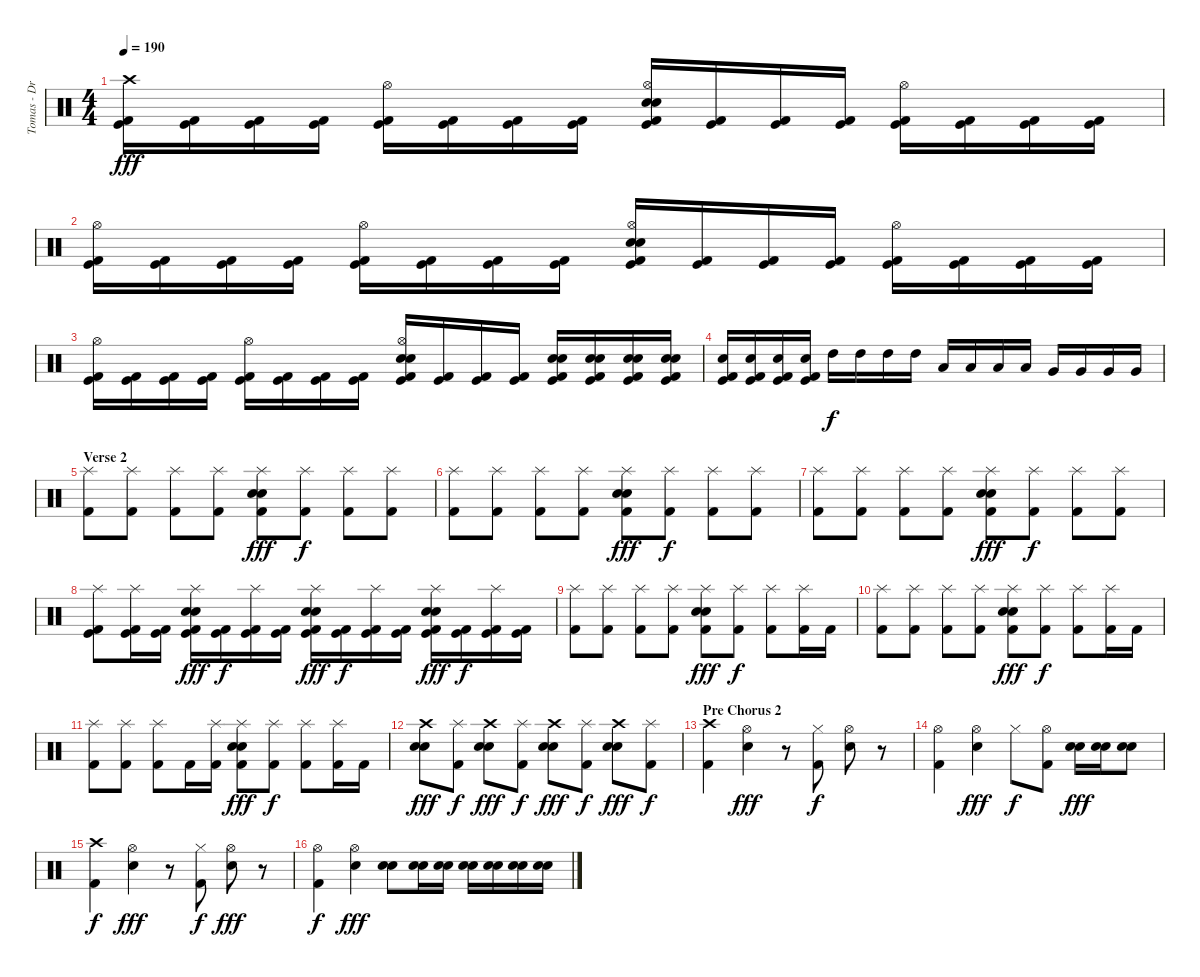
\track ("Tomas - Drums" "Tomas - Dr") {instrument percussion}
\staff {score}
\articulation defaults
\ts (4 4)
\tempo 190
\clef neutral
\ks c
("Crash high (hit)" "Kick (hit)" "Kick (hit) 2").16{dy fff} ("Kick (hit)" "Kick (hit) 2").16 ("Kick (hit)" "Kick (hit) 2").16 ("Kick (hit)" "Kick (hit) 2").16 ("Hi-Hat (open)" "Kick (hit)" "Kick (hit) 2").16 ("Kick (hit)" "Kick (hit) 2").16 ("Kick (hit)" "Kick (hit) 2").16 ("Kick (hit)" "Kick (hit) 2").16 ("Hi-Hat (open)" "Electric Snare (hit)" "Electric Snare (hit)" "Kick (hit)" "Kick (hit) 2").16 ("Kick (hit)" "Kick (hit) 2").16 ("Kick (hit)" "Kick (hit) 2").16 ("Kick (hit)" "Kick (hit) 2").16 ("Hi-Hat (open)" "Kick (hit)" "Kick (hit) 2").16 ("Kick (hit)" "Kick (hit) 2").16 ("Kick (hit)" "Kick (hit) 2").16 ("Kick (hit)" "Kick (hit) 2").16 |
("Hi-Hat (open)" "Kick (hit)" "Kick (hit) 2").16 ("Kick (hit)" "Kick (hit) 2").16 ("Kick (hit)" "Kick (hit) 2").16 ("Kick (hit)" "Kick (hit) 2").16 ("Hi-Hat (open)" "Kick (hit)" "Kick (hit) 2").16 ("Kick (hit)" "Kick (hit) 2").16 ("Kick (hit)" "Kick (hit) 2").16 ("Kick (hit)" "Kick (hit) 2").16 ("Hi-Hat (open)" "Electric Snare (hit)" "Electric Snare (hit)" "Kick (hit)" "Kick (hit) 2").16 ("Kick (hit)" "Kick (hit) 2").16 ("Kick (hit)" "Kick (hit) 2").16 ("Kick (hit)" "Kick (hit) 2").16 ("Hi-Hat (open)" "Kick (hit)" "Kick (hit) 2").16 ("Kick (hit)" "Kick (hit) 2").16 ("Kick (hit)" "Kick (hit) 2").16 ("Kick (hit)" "Kick (hit) 2").16 |
("Hi-Hat (open)" "Kick (hit)" "Kick (hit) 2").16 ("Kick (hit)" "Kick (hit) 2").16 ("Kick (hit)" "Kick (hit) 2").16 ("Kick (hit)" "Kick (hit) 2").16 ("Hi-Hat (open)" "Kick (hit)" "Kick (hit) 2").16 ("Kick (hit)" "Kick (hit) 2").16 ("Kick (hit)" "Kick (hit) 2").16 ("Kick (hit)" "Kick (hit) 2").16 ("Hi-Hat (open)" "Electric Snare (hit)" "Electric Snare (hit)" "Kick (hit)" "Kick (hit) 2").16 ("Kick (hit)" "Kick (hit) 2").16 ("Kick (hit)" "Kick (hit) 2").16 ("Kick (hit)" "Kick (hit) 2").16 ("Electric Snare (hit)" "Electric Snare (hit)" "Kick (hit)" "Kick (hit) 2").16 ("Electric Snare (hit)" "Electric Snare (hit)" "Kick (hit)" "Kick (hit) 2").16 ("Electric Snare (hit)" "Electric Snare (hit)" "Kick (hit)" "Kick (hit) 2").16 ("Electric Snare (hit)" "Electric Snare (hit)" "Kick (hit)" "Kick (hit) 2").16 |
("Electric Snare (hit)" "Kick (hit) 2" "Kick (hit)").16 ("Electric Snare (hit)" "Kick (hit) 2" "Kick (hit)").16 ("Electric Snare (hit)" "Kick (hit) 2" "Kick (hit)").16 ("Electric Snare (hit)" "Kick (hit) 2" "Kick (hit)").16 "High Tom (hit)".16{dy f} "High Tom (hit)".16 "High Tom (hit)".16 "High Tom (hit)".16 "Low Tom (hit)".16 "Low Tom (hit)".16 "Low Tom (hit)".16 "Low Tom (hit)".16 "Very Low Tom (hit)".16 "Very Low Tom (hit)".16 "Very Low Tom (hit)".16 "Very Low Tom (hit)".16 |
\section ("" "Verse 2")
("Splash (hit)" "Kick (hit) 2").8 ("Splash (hit)" "Kick (hit) 2").8 ("Splash (hit)" "Kick (hit) 2").8 ("Splash (hit)" "Kick (hit) 2").8 ("Splash (hit)" "Electric Snare (hit)" "Electric Snare (hit)" "Kick (hit) 2").8{dy fff} ("Splash (hit)" "Kick (hit) 2").8{dy f} ("Splash (hit)" "Kick (hit) 2").8 ("Splash (hit)" "Kick (hit) 2").8 |
("Splash (hit)" "Kick (hit) 2").8 ("Splash (hit)" "Kick (hit) 2").8 ("Splash (hit)" "Kick (hit) 2").8 ("Splash (hit)" "Kick (hit) 2").8 ("Splash (hit)" "Electric Snare (hit)" "Electric Snare (hit)" "Kick (hit) 2").8{dy fff} ("Splash (hit)" "Kick (hit) 2").8{dy f} ("Splash (hit)" "Kick (hit) 2").8 ("Splash (hit)" "Kick (hit) 2").8 |
("Splash (hit)" "Kick (hit) 2").8 ("Splash (hit)" "Kick (hit) 2").8 ("Splash (hit)" "Kick (hit) 2").8 ("Splash (hit)" "Kick (hit) 2").8 ("Splash (hit)" "Electric Snare (hit)" "Electric Snare (hit)" "Kick (hit) 2").8{dy fff} ("Splash (hit)" "Kick (hit) 2").8{dy f} ("Splash (hit)" "Kick (hit) 2").8 ("Splash (hit)" "Kick (hit) 2").8 |
("Splash (hit)" "Kick (hit)" "Kick (hit) 2").8 ("Splash (hit)" "Kick (hit)" "Kick (hit) 2").16 ("Kick (hit)" "Kick (hit) 2").16 ("Splash (hit)" "Electric Snare (hit)" "Electric Snare (hit)" "Kick (hit)" "Kick (hit) 2").16{dy fff} ("Kick (hit)" "Kick (hit) 2").16{dy f} ("Splash (hit)" "Kick (hit)" "Kick (hit) 2").16 ("Kick (hit)" "Kick (hit) 2").16 ("Splash (hit)" "Electric Snare (hit)" "Electric Snare (hit)" "Kick (hit)" "Kick (hit) 2").16{dy fff} ("Kick (hit)" "Kick (hit) 2").16{dy f} ("Splash (hit)" "Kick (hit)" "Kick (hit) 2").16 ("Kick (hit)" "Kick (hit) 2").16 ("Splash (hit)" "Electric Snare (hit)" "Electric Snare (hit)" "Kick (hit)" "Kick (hit) 2").16{dy fff} ("Kick (hit)" "Kick (hit) 2").16{dy f} ("Splash (hit)" "Kick (hit)" "Kick (hit) 2").16 ("Kick (hit)" "Kick (hit) 2").16 |
("Splash (hit)" "Kick (hit) 2").8 ("Splash (hit)" "Kick (hit) 2").8 ("Splash (hit)" "Kick (hit) 2").8 ("Splash (hit)" "Kick (hit) 2").8 ("Splash (hit)" "Electric Snare (hit)" "Electric Snare (hit)" "Kick (hit) 2").8{dy fff} ("Splash (hit)" "Kick (hit) 2").8{dy f} ("Splash (hit)" "Kick (hit) 2").8 ("Splash (hit)" "Kick (hit) 2").16 "Kick (hit) 2".16 |
("Splash (hit)" "Kick (hit) 2").8 ("Splash (hit)" "Kick (hit) 2").8 ("Splash (hit)" "Kick (hit) 2").8 ("Splash (hit)" "Kick (hit) 2").8 ("Splash (hit)" "Electric Snare (hit)" "Electric Snare (hit)" "Kick (hit) 2").8{dy fff} ("Splash (hit)" "Kick (hit) 2").8{dy f} ("Splash (hit)" "Kick (hit) 2").8 ("Splash (hit)" "Kick (hit) 2").16 "Kick (hit) 2".16 |
("Splash (hit)" "Kick (hit) 2").8 ("Splash (hit)" "Kick (hit) 2").8 ("Splash (hit)" "Kick (hit) 2").8 "Kick (hit) 2".16 ("Splash (hit)" "Kick (hit) 2").16 ("Splash (hit)" "Electric Snare (hit)" "Electric Snare (hit)" "Kick (hit) 2").8{dy fff} ("Splash (hit)" "Kick (hit) 2").8{dy f} ("Splash (hit)" "Kick (hit) 2").8 ("Splash (hit)" "Kick (hit) 2").16 "Kick (hit) 2".16 |
("Crash high (hit)" "Electric Snare (hit)" "Electric Snare (hit)").8{dy fff} ("Splash (hit)" "Kick (hit) 2").8{dy f} ("Crash high (hit)" "Electric Snare (hit)" "Electric Snare (hit)").8{dy fff} ("Splash (hit)" "Kick (hit) 2").8{dy f} ("Crash high (hit)" "Electric Snare (hit)" "Electric Snare (hit)").8{dy fff} ("Splash (hit)" "Kick (hit) 2").8{dy f} ("Crash high (hit)" "Electric Snare (hit)" "Electric Snare (hit)").8{dy fff} ("Splash (hit)" "Kick (hit) 2").8{dy f} |
\section ("" "Pre Chorus 2")
("Crash high (hit)" "Kick (hit) 2").4 ("Hi-Hat (open)" "Electric Snare (hit)").4{dy fff} r.8 ("Hi-Hat (closed)" "Kick (hit) 2").8{dy f} ("Hi-Hat (open)" "Electric Snare (hit)").8 r.8 |
("Hi-Hat (open)" "Kick (hit) 2").4 ("Hi-Hat (open)" "Electric Snare (hit)").4{dy fff} "Hi-Hat (closed)".8{dy f} ("Hi-Hat (open)" "Kick (hit) 2").8 ("Electric Snare (hit)" "Electric Snare (hit)").16{dy fff} ("Electric Snare (hit)" "Electric Snare (hit)").16 ("Electric Snare (hit)" "Electric Snare (hit)").8 |
("Crash high (hit)" "Kick (hit) 2").4{dy f} ("Hi-Hat (open)" "Electric Snare (hit)").4{dy fff} r.8 ("Hi-Hat (closed)" "Kick (hit) 2").8{dy f} ("Hi-Hat (open)" "Electric Snare (hit)").8{dy fff} r.8 |
("Hi-Hat (open)" "Kick (hit) 2").4{dy f} ("Hi-Hat (open)" "Electric Snare (hit)").4{dy fff} ("Electric Snare (hit)" "Electric Snare (hit)").8 ("Electric Snare (hit)" "Electric Snare (hit)").16 ("Electric Snare (hit)" "Electric Snare (hit)").16 ("Electric Snare (hit)" "Electric Snare (hit)").16 ("Electric Snare (hit)" "Electric Snare (hit)").16 ("Electric Snare (hit)" "Electric Snare (hit)").16 ("Electric Snare (hit)" "Electric Snare (hit)").16
